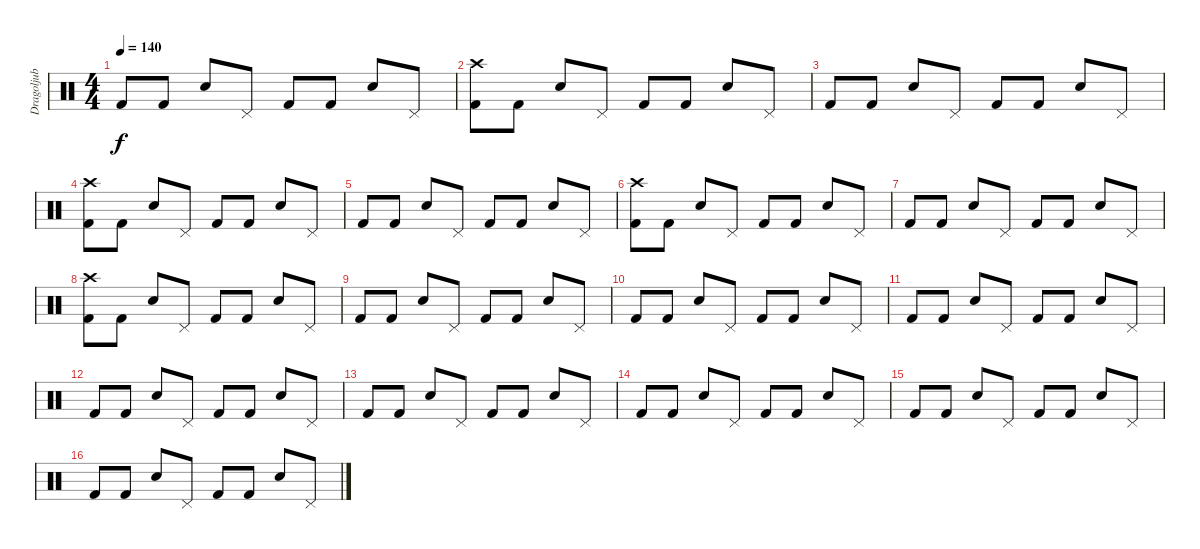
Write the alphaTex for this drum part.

\track ("Dragoljub Djuricic" "Dragoljub ") {instrument percussion}
\staff {score}
\articulation defaults
\ts (4 4)
\tempo 140
\clef neutral
\ks c "Kick (hit) 2".8{dy f} "Kick (hit) 2".8 "Snare (hit) 2".8 "Pedal Hi-Hat (hit)".8 "Kick (hit) 2".8 "Kick (hit) 2".8 "Snare (hit) 2".8 "Pedal Hi-Hat (hit)".8
|
("Kick (hit) 2" "Crash high (hit)").8 "Kick (hit) 2".8 "Snare (hit) 2".8 "Pedal Hi-Hat (hit)".8 "Kick (hit) 2".8 "Kick (hit) 2".8 "Snare (hit) 2".8 "Pedal Hi-Hat (hit)".8 |
"Kick (hit) 2".8 "Kick (hit) 2".8 "Snare (hit) 2".8 "Pedal Hi-Hat (hit)".8 "Kick (hit) 2".8 "Kick (hit) 2".8 "Snare (hit) 2".8 "Pedal Hi-Hat (hit)".8 |
("Kick (hit) 2" "Crash high (hit)").8 "Kick (hit) 2".8 "Snare (hit) 2".8 "Pedal Hi-Hat (hit)".8 "Kick (hit) 2".8 "Kick (hit) 2".8 "Snare (hit) 2".8 "Pedal Hi-Hat (hit)".8 |
"Kick (hit) 2".8 "Kick (hit) 2".8 "Snare (hit) 2".8 "Pedal Hi-Hat (hit)".8 "Kick (hit) 2".8 "Kick (hit) 2".8 "Snare (hit) 2".8 "Pedal Hi-Hat (hit)".8 |
("Kick (hit) 2" "Crash high (hit)").8 "Kick (hit) 2".8 "Snare (hit) 2".8 "Pedal Hi-Hat (hit)".8 "Kick (hit) 2".8 "Kick (hit) 2".8 "Snare (hit) 2".8 "Pedal Hi-Hat (hit)".8 |
"Kick (hit) 2".8 "Kick (hit) 2".8 "Snare (hit) 2".8 "Pedal Hi-Hat (hit)".8 "Kick (hit) 2".8 "Kick (hit) 2".8 "Snare (hit) 2".8 "Pedal Hi-Hat (hit)".8 |
("Kick (hit) 2" "Crash high (hit)").8 "Kick (hit) 2".8 "Snare (hit) 2".8 "Pedal Hi-Hat (hit)".8 "Kick (hit) 2".8 "Kick (hit) 2".8 "Snare (hit) 2".8 "Pedal Hi-Hat (hit)".8 |
"Kick (hit) 2".8 "Kick (hit) 2".8 "Snare (hit) 2".8 "Pedal Hi-Hat (hit)".8 "Kick (hit) 2".8 "Kick (hit) 2".8 "Snare (hit) 2".8 "Pedal Hi-Hat (hit)".8 |
"Kick (hit) 2".8 "Kick (hit) 2".8 "Snare (hit) 2".8 "Pedal Hi-Hat (hit)".8 "Kick (hit) 2".8 "Kick (hit) 2".8 "Snare (hit) 2".8 "Pedal Hi-Hat (hit)".8 |
"Kick (hit) 2".8 "Kick (hit) 2".8 "Snare (hit) 2".8 "Pedal Hi-Hat (hit)".8 "Kick (hit) 2".8 "Kick (hit) 2".8 "Snare (hit) 2".8 "Pedal Hi-Hat (hit)".8 |
"Kick (hit) 2".8 "Kick (hit) 2".8 "Snare (hit) 2".8 "Pedal Hi-Hat (hit)".8 "Kick (hit) 2".8 "Kick (hit) 2".8 "Snare (hit) 2".8 "Pedal Hi-Hat (hit)".8 |
"Kick (hit) 2".8 "Kick (hit) 2".8 "Snare (hit) 2".8 "Pedal Hi-Hat (hit)".8 "Kick (hit) 2".8 "Kick (hit) 2".8 "Snare (hit) 2".8 "Pedal Hi-Hat (hit)".8 |
"Kick (hit) 2".8 "Kick (hit) 2".8 "Snare (hit) 2".8 "Pedal Hi-Hat (hit)".8 "Kick (hit) 2".8 "Kick (hit) 2".8 "Snare (hit) 2".8 "Pedal Hi-Hat (hit)".8 |
"Kick (hit) 2".8 "Kick (hit) 2".8 "Snare (hit) 2".8 "Pedal Hi-Hat (hit)".8 "Kick (hit) 2".8 "Kick (hit) 2".8 "Snare (hit) 2".8 "Pedal Hi-Hat (hit)".8 |
"Kick (hit) 2".8 "Kick (hit) 2".8 "Snare (hit) 2".8 "Pedal Hi-Hat (hit)".8 "Kick (hit) 2".8 "Kick (hit) 2".8 "Snare (hit) 2".8 "Pedal Hi-Hat (hit)".8
